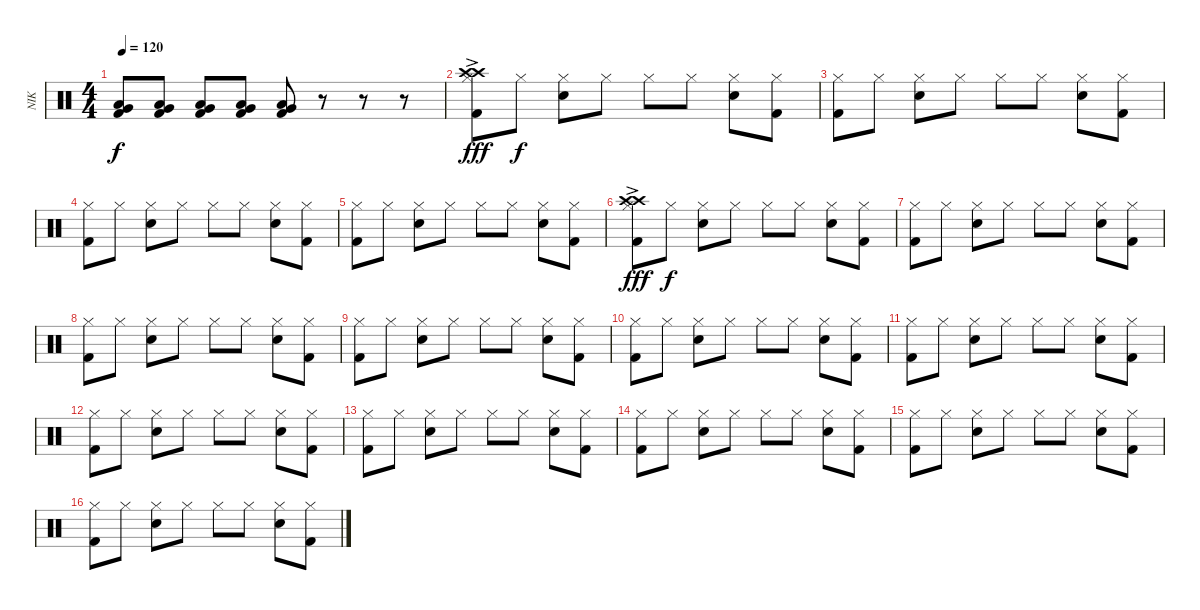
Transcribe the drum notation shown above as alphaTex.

\track ("NIK" "NIK") {instrument percussion}
\staff {score}
\articulation defaults
\ts (4 4)
\tempo 120
\clef neutral
\ks c
("Very Low Tom (hit)" "Low Floor Tom (hit)" "Kick (hit) 2").8{dy f} ("Very Low Tom (hit)" "Low Floor Tom (hit)" "Kick (hit) 2").8 ("Very Low Tom (hit)" "Low Floor Tom (hit)" "Kick (hit) 2").8 ("Very Low Tom (hit)" "Low Floor Tom (hit)" "Kick (hit) 2").8 ("Very Low Tom (hit)" "Low Floor Tom (hit)" "Kick (hit) 2").8 r.8 r.8 r.8 |
("Crash high (hit)"{ac} "Crash high (hit)"{ac} "Hi-Hat (closed)" "Kick (hit) 2").8{dy fff} "Hi-Hat (closed)".8{dy f} ("Snare (hit) 2" "Hi-Hat (closed)").8 "Hi-Hat (closed)".8 "Hi-Hat (closed)".8 "Hi-Hat (closed)".8 ("Snare (hit) 2" "Hi-Hat (closed)").8 ("Hi-Hat (closed)" "Kick (hit) 2").8 |
("Hi-Hat (closed)" "Kick (hit) 2").8 "Hi-Hat (closed)".8 ("Snare (hit) 2" "Hi-Hat (closed)").8 "Hi-Hat (closed)".8 "Hi-Hat (closed)".8 "Hi-Hat (closed)".8 ("Snare (hit) 2" "Hi-Hat (closed)").8 ("Hi-Hat (closed)" "Kick (hit) 2").8 |
("Hi-Hat (closed)" "Kick (hit) 2").8 "Hi-Hat (closed)".8 ("Snare (hit) 2" "Hi-Hat (closed)").8 "Hi-Hat (closed)".8 "Hi-Hat (closed)".8 "Hi-Hat (closed)".8 ("Snare (hit) 2" "Hi-Hat (closed)").8 ("Hi-Hat (closed)" "Kick (hit) 2").8 |
("Hi-Hat (closed)" "Kick (hit) 2").8 "Hi-Hat (closed)".8 ("Snare (hit) 2" "Hi-Hat (closed)").8 "Hi-Hat (closed)".8 "Hi-Hat (closed)".8 "Hi-Hat (closed)".8 ("Snare (hit) 2" "Hi-Hat (closed)").8 ("Hi-Hat (closed)" "Kick (hit) 2").8 |
("Crash high (hit)"{ac} "Crash high (hit)"{ac} "Hi-Hat (closed)" "Kick (hit) 2").8{dy fff} "Hi-Hat (closed)".8{dy f} ("Snare (hit) 2" "Hi-Hat (closed)").8 "Hi-Hat (closed)".8 "Hi-Hat (closed)".8 "Hi-Hat (closed)".8 ("Snare (hit) 2" "Hi-Hat (closed)").8 ("Hi-Hat (closed)" "Kick (hit) 2").8 |
("Hi-Hat (closed)" "Kick (hit) 2").8 "Hi-Hat (closed)".8 ("Snare (hit) 2" "Hi-Hat (closed)").8 "Hi-Hat (closed)".8 "Hi-Hat (closed)".8 "Hi-Hat (closed)".8 ("Snare (hit) 2" "Hi-Hat (closed)").8 ("Hi-Hat (closed)" "Kick (hit) 2").8 |
("Hi-Hat (closed)" "Kick (hit) 2").8 "Hi-Hat (closed)".8 ("Snare (hit) 2" "Hi-Hat (closed)").8 "Hi-Hat (closed)".8 "Hi-Hat (closed)".8 "Hi-Hat (closed)".8 ("Snare (hit) 2" "Hi-Hat (closed)").8 ("Hi-Hat (closed)" "Kick (hit) 2").8 |
("Hi-Hat (closed)" "Kick (hit) 2").8 "Hi-Hat (closed)".8 ("Snare (hit) 2" "Hi-Hat (closed)").8 "Hi-Hat (closed)".8 "Hi-Hat (closed)".8 "Hi-Hat (closed)".8 ("Snare (hit) 2" "Hi-Hat (closed)").8 ("Hi-Hat (closed)" "Kick (hit) 2").8 |
("Hi-Hat (closed)" "Kick (hit) 2").8 "Hi-Hat (closed)".8 ("Snare (hit) 2" "Hi-Hat (closed)").8 "Hi-Hat (closed)".8 "Hi-Hat (closed)".8 "Hi-Hat (closed)".8 ("Snare (hit) 2" "Hi-Hat (closed)").8 ("Hi-Hat (closed)" "Kick (hit) 2").8 |
("Hi-Hat (closed)" "Kick (hit) 2").8 "Hi-Hat (closed)".8 ("Snare (hit) 2" "Hi-Hat (closed)").8 "Hi-Hat (closed)".8 "Hi-Hat (closed)".8 "Hi-Hat (closed)".8 ("Snare (hit) 2" "Hi-Hat (closed)").8 ("Hi-Hat (closed)" "Kick (hit) 2").8 |
("Hi-Hat (closed)" "Kick (hit) 2").8 "Hi-Hat (closed)".8 ("Snare (hit) 2" "Hi-Hat (closed)").8 "Hi-Hat (closed)".8 "Hi-Hat (closed)".8 "Hi-Hat (closed)".8 ("Snare (hit) 2" "Hi-Hat (closed)").8 ("Hi-Hat (closed)" "Kick (hit) 2").8 |
("Hi-Hat (closed)" "Kick (hit) 2").8 "Hi-Hat (closed)".8 ("Snare (hit) 2" "Hi-Hat (closed)").8 "Hi-Hat (closed)".8 "Hi-Hat (closed)".8 "Hi-Hat (closed)".8 ("Snare (hit) 2" "Hi-Hat (closed)").8 ("Hi-Hat (closed)" "Kick (hit) 2").8 |
("Hi-Hat (closed)" "Kick (hit) 2").8 "Hi-Hat (closed)".8 ("Snare (hit) 2" "Hi-Hat (closed)").8 "Hi-Hat (closed)".8 "Hi-Hat (closed)".8 "Hi-Hat (closed)".8 ("Snare (hit) 2" "Hi-Hat (closed)").8 ("Hi-Hat (closed)" "Kick (hit) 2").8 |
("Hi-Hat (closed)" "Kick (hit) 2").8 "Hi-Hat (closed)".8 ("Snare (hit) 2" "Hi-Hat (closed)").8 "Hi-Hat (closed)".8 "Hi-Hat (closed)".8 "Hi-Hat (closed)".8 ("Snare (hit) 2" "Hi-Hat (closed)").8 ("Hi-Hat (closed)" "Kick (hit) 2").8 |
("Hi-Hat (closed)" "Kick (hit) 2").8 "Hi-Hat (closed)".8 ("Snare (hit) 2" "Hi-Hat (closed)").8 "Hi-Hat (closed)".8 "Hi-Hat (closed)".8 "Hi-Hat (closed)".8 ("Snare (hit) 2" "Hi-Hat (closed)").8 ("Hi-Hat (closed)" "Kick (hit) 2").8
